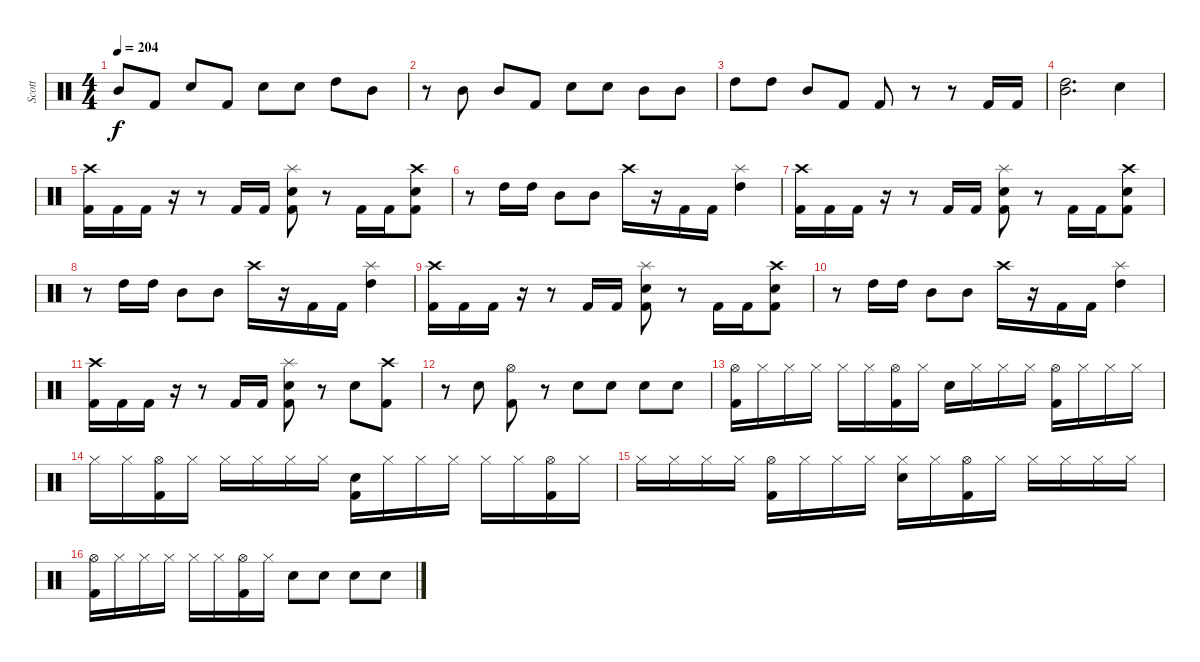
\track ("Scott" "Scott") {instrument percussion}
\staff {score}
\articulation defaults
\ts (4 4)
\tempo 204
\clef neutral
\ks c "Mid Tom (hit)".8{dy f} "Kick (hit) 2".8 "Snare (hit) 2".8 "Kick (hit) 2".8 "Snare (hit) 2".8 "Snare (hit) 2".8 "High Tom (hit)".8 "Mid Tom (hit)".8
|
r.8 "Mid Tom (hit)".8 "Mid Tom (hit)".8 "Kick (hit) 2".8 "Snare (hit) 2".8 "Snare (hit) 2".8 "Mid Tom (hit)".8 "Mid Tom (hit)".8 |
"High Tom (hit)".8 "High Tom (hit)".8 "Mid Tom (hit)".8 "Kick (hit) 2".8 "Kick (hit) 2".8 r.8 r.8 "Kick (hit) 2".16 "Kick (hit) 2".16 |
("Mid Tom (hit)" "High Tom (hit)").2{d} "Snare (hit) 2".4 |
("Crash high (hit)" "Kick (hit) 2").16 "Kick (hit) 2".16 "Kick (hit) 2".16 r.16 r.8 "Kick (hit) 2".16 "Kick (hit) 2".16 ("Splash (hit)" "Snare (hit) 2" "Kick (hit) 2").8 r.8 "Kick (hit) 2".16 "Kick (hit) 2".16 ("Crash high (hit)" "Snare (hit) 2" "Kick (hit) 2").8 |
r.8 "High Tom (hit)".16 "High Tom (hit)".16 "Mid Tom (hit)".8 "Mid Tom (hit)".8 "Crash high (hit)".16 r.16 "Kick (hit) 2".16 "Kick (hit) 2".16 ("Splash (hit)" "High Tom (hit)").4 |
("Crash high (hit)" "Kick (hit) 2").16 "Kick (hit) 2".16 "Kick (hit) 2".16 r.16 r.8 "Kick (hit) 2".16 "Kick (hit) 2".16 ("Splash (hit)" "Snare (hit) 2" "Kick (hit) 2").8 r.8 "Kick (hit) 2".16 "Kick (hit) 2".16 ("Crash high (hit)" "Snare (hit) 2" "Kick (hit) 2").8 |
r.8 "High Tom (hit)".16 "High Tom (hit)".16 "Mid Tom (hit)".8 "Mid Tom (hit)".8 "Crash high (hit)".16 r.16 "Kick (hit) 2".16 "Kick (hit) 2".16 ("Splash (hit)" "High Tom (hit)").4 |
("Crash high (hit)" "Kick (hit) 2").16 "Kick (hit) 2".16 "Kick (hit) 2".16 r.16 r.8 "Kick (hit) 2".16 "Kick (hit) 2".16 ("Splash (hit)" "Snare (hit) 2" "Kick (hit) 2").8 r.8 "Kick (hit) 2".16 "Kick (hit) 2".16 ("Crash high (hit)" "Snare (hit) 2" "Kick (hit) 2").8 |
r.8 "High Tom (hit)".16 "High Tom (hit)".16 "Mid Tom (hit)".8 "Mid Tom (hit)".8 "Crash high (hit)".16 r.16 "Kick (hit) 2".16 "Kick (hit) 2".16 ("Splash (hit)" "High Tom (hit)").4 |
("Crash high (hit)" "Kick (hit) 2").16 "Kick (hit) 2".16 "Kick (hit) 2".16 r.16 r.8 "Kick (hit) 2".16 "Kick (hit) 2".16 ("Splash (hit)" "Snare (hit) 2" "Kick (hit) 2").8 r.8 "Snare (hit) 2".8 ("Crash high (hit)" "Kick (hit) 2").8 |
r.8 "Snare (hit) 2".8 ("Hi-Hat (open)" "Kick (hit) 2").8 r.8 "Snare (hit) 2".8 "Snare (hit) 2".8 "Snare (hit) 2".8 "Snare (hit) 2".8 |
("Hi-Hat (open)" "Kick (hit) 2").16 "Hi-Hat (closed)".16 "Hi-Hat (closed)".16 "Hi-Hat (closed)".16 "Hi-Hat (closed)".16 "Hi-Hat (closed)".16 ("Hi-Hat (open)" "Kick (hit) 2").16 "Hi-Hat (closed)".16 "Snare (hit) 2".16 "Hi-Hat (closed)".16 "Hi-Hat (closed)".16 "Hi-Hat (closed)".16 ("Hi-Hat (open)" "Kick (hit) 2").16 "Hi-Hat (closed)".16 "Hi-Hat (closed)".16 "Hi-Hat (closed)".16 |
"Hi-Hat (closed)".16 "Hi-Hat (closed)".16 ("Hi-Hat (open)" "Kick (hit) 2").16 "Hi-Hat (closed)".16 "Hi-Hat (closed)".16 "Hi-Hat (closed)".16 "Hi-Hat (closed)".16 "Hi-Hat (closed)".16 ("Snare (hit) 2" "Kick (hit) 2").16 "Hi-Hat (closed)".16 "Hi-Hat (closed)".16 "Hi-Hat (closed)".16 "Hi-Hat (closed)".16 "Hi-Hat (closed)".16 ("Hi-Hat (open)" "Kick (hit) 2").16 "Hi-Hat (closed)".16 |
"Hi-Hat (closed)".16 "Hi-Hat (closed)".16 "Hi-Hat (closed)".16 "Hi-Hat (closed)".16 ("Hi-Hat (open)" "Kick (hit) 2").16 "Hi-Hat (closed)".16 "Hi-Hat (closed)".16 "Hi-Hat (closed)".16 ("Hi-Hat (closed)" "Snare (hit) 2").16 "Hi-Hat (closed)".16 ("Hi-Hat (open)" "Kick (hit) 2").16 "Hi-Hat (closed)".16 "Hi-Hat (closed)".16 "Hi-Hat (closed)".16 "Hi-Hat (closed)".16 "Hi-Hat (closed)".16 |
("Hi-Hat (open)" "Kick (hit) 2").16 "Hi-Hat (closed)".16 "Hi-Hat (closed)".16 "Hi-Hat (closed)".16 "Hi-Hat (closed)".16 "Hi-Hat (closed)".16 ("Hi-Hat (open)" "Kick (hit) 2").16 "Hi-Hat (closed)".16 "Snare (hit) 2".8 "Snare (hit) 2".8 "Snare (hit) 2".8 "Snare (hit) 2".8
